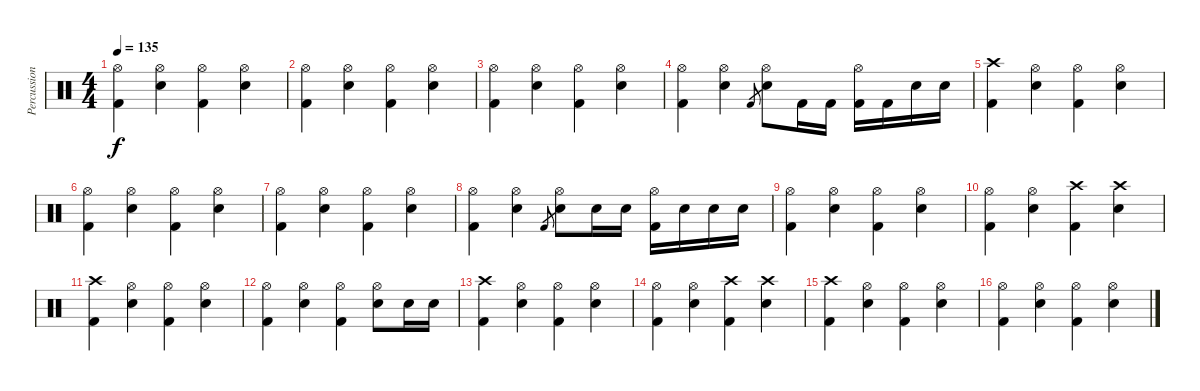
\track ("Percussions" "Percussion") {instrument percussion}
\staff {score}
\articulation defaults
\ts (4 4)
\tempo 135
\clef neutral
\ks c
("Hi-Hat (open)" "Kick (hit) 2").4{dy f} ("Hi-Hat (open)" "Electric Snare (hit)").4 ("Hi-Hat (open)" "Kick (hit) 2").4 ("Hi-Hat (open)" "Electric Snare (hit)").4 |
("Hi-Hat (open)" "Kick (hit) 2").4 ("Hi-Hat (open)" "Electric Snare (hit)").4 ("Hi-Hat (open)" "Kick (hit) 2").4 ("Hi-Hat (open)" "Electric Snare (hit)").4 |
("Hi-Hat (open)" "Kick (hit) 2").4 ("Hi-Hat (open)" "Electric Snare (hit)").4 ("Hi-Hat (open)" "Kick (hit) 2").4 ("Hi-Hat (open)" "Electric Snare (hit)").4 |
("Hi-Hat (open)" "Kick (hit) 2").4 ("Hi-Hat (open)" "Electric Snare (hit)").4 "Kick (hit) 2".8{gr} ("Hi-Hat (open)" "Electric Snare (hit)").8 "Kick (hit) 2".16 "Kick (hit) 2".16 ("Hi-Hat (open)" "Kick (hit) 2").16 "Kick (hit) 2".16 "Electric Snare (hit)".16 "Electric Snare (hit)".16 |
("Crash high (hit)" "Kick (hit) 2").4 ("Hi-Hat (open)" "Electric Snare (hit)").4 ("Hi-Hat (open)" "Kick (hit) 2").4 ("Hi-Hat (open)" "Electric Snare (hit)").4 |
("Hi-Hat (open)" "Kick (hit) 2").4 ("Hi-Hat (open)" "Electric Snare (hit)").4 ("Hi-Hat (open)" "Kick (hit) 2").4 ("Hi-Hat (open)" "Electric Snare (hit)").4 |
("Hi-Hat (open)" "Kick (hit) 2").4 ("Hi-Hat (open)" "Electric Snare (hit)").4 ("Hi-Hat (open)" "Kick (hit) 2").4 ("Hi-Hat (open)" "Electric Snare (hit)").4 |
("Hi-Hat (open)" "Kick (hit) 2").4 ("Hi-Hat (open)" "Electric Snare (hit)").4 "Kick (hit) 2".8{gr} ("Hi-Hat (open)" "Electric Snare (hit)").8 "Electric Snare (hit)".16 "Electric Snare (hit)".16 ("Hi-Hat (open)" "Kick (hit) 2").16 "Electric Snare (hit)".16 "Electric Snare (hit)".16 "Electric Snare (hit)".16 |
("Hi-Hat (open)" "Kick (hit) 2").4 ("Hi-Hat (open)" "Electric Snare (hit)").4 ("Hi-Hat (open)" "Kick (hit) 2").4 ("Hi-Hat (open)" "Electric Snare (hit)").4 |
("Hi-Hat (open)" "Kick (hit) 2").4 ("Hi-Hat (open)" "Electric Snare (hit)").4 ("Crash high (hit)" "Kick (hit) 2").4 ("Crash high (hit)" "Electric Snare (hit)").4 |
("Crash high (hit)" "Kick (hit) 2").4 ("Hi-Hat (open)" "Electric Snare (hit)").4 ("Hi-Hat (open)" "Kick (hit) 2").4 ("Hi-Hat (open)" "Electric Snare (hit)").4 |
("Hi-Hat (open)" "Kick (hit) 2").4 ("Hi-Hat (open)" "Electric Snare (hit)").4 ("Hi-Hat (open)" "Kick (hit) 2").4 ("Hi-Hat (open)" "Electric Snare (hit)").8 "Electric Snare (hit)".16 "Electric Snare (hit)".16 |
("Crash high (hit)" "Kick (hit) 2").4 ("Hi-Hat (open)" "Electric Snare (hit)").4 ("Hi-Hat (open)" "Kick (hit) 2").4 ("Hi-Hat (open)" "Electric Snare (hit)").4 |
("Hi-Hat (open)" "Kick (hit) 2").4 ("Hi-Hat (open)" "Electric Snare (hit)").4 ("Crash high (hit)" "Kick (hit) 2").4 ("Crash high (hit)" "Electric Snare (hit)").4 |
("Crash high (hit)" "Kick (hit) 2").4 ("Hi-Hat (open)" "Electric Snare (hit)").4 ("Hi-Hat (open)" "Kick (hit) 2").4 ("Hi-Hat (open)" "Electric Snare (hit)").4 |
("Hi-Hat (open)" "Kick (hit) 2").4 ("Hi-Hat (open)" "Electric Snare (hit)").4 ("Hi-Hat (open)" "Kick (hit) 2").4 ("Hi-Hat (open)" "Electric Snare (hit)").4
